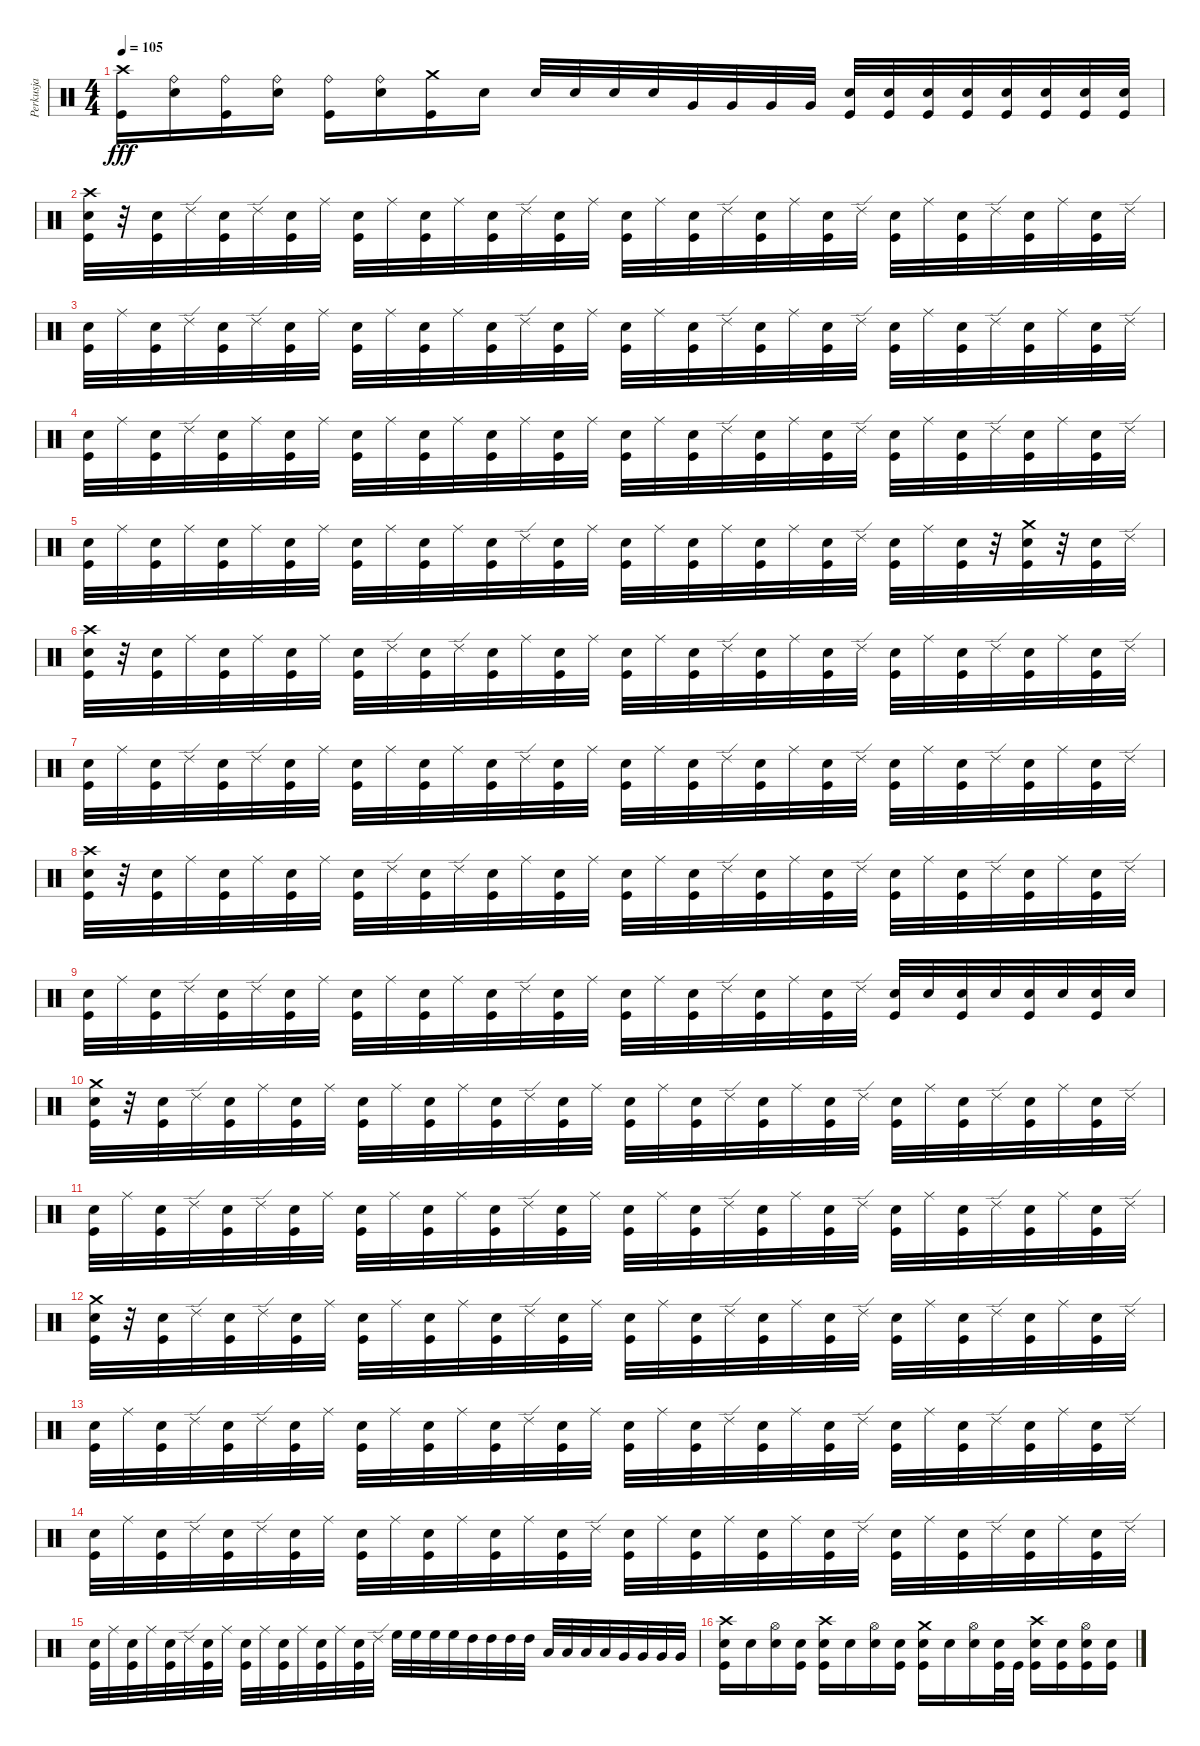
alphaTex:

\track ("Perkusja" "Perkusja") {instrument percussion}
\staff {score}
\articulation defaults
\ts (4 4)
\tempo 105
\clef neutral
\ks c
("Crash high (hit)" "Kick (hit)").16{dy fff} ("Ride (bell)" "Snare (hit) 2").16 ("Ride (bell)" "Kick (hit)").16 ("Ride (bell)" "Snare (hit) 2").16 ("Ride (bell)" "Kick (hit)").16 ("Ride (bell)" "Snare (hit) 2").16 ("Crash medium (hit)" "Kick (hit)").16 "Snare (hit) 2".16 "Snare (hit) 2".32 "Snare (hit) 2".32 "Snare (hit) 2".32 "Snare (hit) 2".32 "Very Low Tom (hit)".32{balance 16} "Very Low Tom (hit)".32 "Very Low Tom (hit)".32 "Very Low Tom (hit)".32 ("Snare (hit) 2" "Kick (hit)").32{balance 8} ("Snare (hit) 2" "Kick (hit)").32 ("Snare (hit) 2" "Kick (hit)").32 ("Snare (hit) 2" "Kick (hit)").32 ("Snare (hit) 2" "Kick (hit)").32 ("Snare (hit) 2" "Kick (hit)").32 ("Snare (hit) 2" "Kick (hit)").32 ("Snare (hit) 2" "Kick (hit)").32 |
("Crash high (hit)" "Snare (hit) 2" "Kick (hit)").32{balance 8} r.32 ("Snare (hit) 2" "Kick (hit)").32 "Ride (edge) 2".32 ("Snare (hit) 2" "Kick (hit)").32 "Ride (edge) 2".32 ("Snare (hit) 2" "Kick (hit)").32 "Ride (middle)".32 ("Snare (hit) 2" "Kick (hit)").32 "Ride (middle)".32 ("Snare (hit) 2" "Kick (hit)").32 "Ride (middle)".32 ("Snare (hit) 2" "Kick (hit)").32 "Ride (edge) 2".32 ("Snare (hit) 2" "Kick (hit)").32 "Ride (middle)".32 ("Snare (hit) 2" "Kick (hit)").32 "Ride (middle)".32 ("Snare (hit) 2" "Kick (hit)").32 "Ride (edge) 2".32 ("Snare (hit) 2" "Kick (hit)").32 "Ride (middle)".32 ("Snare (hit) 2" "Kick (hit)").32 "Ride (edge) 2".32 ("Snare (hit) 2" "Kick (hit)").32 "Ride (middle)".32 ("Snare (hit) 2" "Kick (hit)").32 "Ride (edge) 2".32 ("Snare (hit) 2" "Kick (hit)").32 "Ride (middle)".32 ("Snare (hit) 2" "Kick (hit)").32 "Ride (edge) 2".32 |
("Snare (hit) 2" "Kick (hit)").32 "Ride (middle)".32 ("Snare (hit) 2" "Kick (hit)").32 "Ride (edge) 2".32 ("Snare (hit) 2" "Kick (hit)").32 "Ride (edge) 2".32 ("Snare (hit) 2" "Kick (hit)").32 "Ride (middle)".32 ("Snare (hit) 2" "Kick (hit)").32 "Ride (middle)".32 ("Snare (hit) 2" "Kick (hit)").32 "Ride (middle)".32 ("Snare (hit) 2" "Kick (hit)").32 "Ride (edge) 2".32 ("Snare (hit) 2" "Kick (hit)").32 "Ride (middle)".32 ("Snare (hit) 2" "Kick (hit)").32 "Ride (middle)".32 ("Snare (hit) 2" "Kick (hit)").32 "Ride (edge) 2".32 ("Snare (hit) 2" "Kick (hit)").32 "Ride (middle)".32 ("Snare (hit) 2" "Kick (hit)").32 "Ride (edge) 2".32 ("Snare (hit) 2" "Kick (hit)").32 "Ride (middle)".32 ("Snare (hit) 2" "Kick (hit)").32 "Ride (edge) 2".32 ("Snare (hit) 2" "Kick (hit)").32 "Ride (middle)".32 ("Snare (hit) 2" "Kick (hit)").32 "Ride (edge) 2".32 |
("Snare (hit) 2" "Kick (hit)").32 "Ride (middle)".32 ("Snare (hit) 2" "Kick (hit)").32 "Ride (edge) 2".32 ("Snare (hit) 2" "Kick (hit)").32 "Ride (middle)".32 ("Snare (hit) 2" "Kick (hit)").32 "Ride (middle)".32 ("Snare (hit) 2" "Kick (hit)").32 "Ride (middle)".32 ("Snare (hit) 2" "Kick (hit)").32 "Ride (middle)".32 ("Snare (hit) 2" "Kick (hit)").32 "Ride (middle)".32 ("Snare (hit) 2" "Kick (hit)").32 "Ride (middle)".32 ("Snare (hit) 2" "Kick (hit)").32 "Ride (middle)".32 ("Snare (hit) 2" "Kick (hit)").32 "Ride (edge) 2".32 ("Snare (hit) 2" "Kick (hit)").32 "Ride (middle)".32 ("Snare (hit) 2" "Kick (hit)").32 "Ride (edge) 2".32 ("Snare (hit) 2" "Kick (hit)").32 "Ride (middle)".32 ("Snare (hit) 2" "Kick (hit)").32 "Ride (edge) 2".32 ("Snare (hit) 2" "Kick (hit)").32 "Ride (middle)".32 ("Snare (hit) 2" "Kick (hit)").32 "Ride (edge) 2".32 |
("Snare (hit) 2" "Kick (hit)").32 "Ride (middle)".32 ("Snare (hit) 2" "Kick (hit)").32 "Ride (middle)".32 ("Snare (hit) 2" "Kick (hit)").32 "Ride (middle)".32 ("Snare (hit) 2" "Kick (hit)").32 "Ride (middle)".32 ("Snare (hit) 2" "Kick (hit)").32 "Ride (middle)".32 ("Snare (hit) 2" "Kick (hit)").32 "Ride (middle)".32 ("Snare (hit) 2" "Kick (hit)").32 "Ride (edge) 2".32 ("Snare (hit) 2" "Kick (hit)").32 "Ride (middle)".32 ("Snare (hit) 2" "Kick (hit)").32 "Ride (middle)".32 ("Snare (hit) 2" "Kick (hit)").32 "Ride (middle)".32 ("Snare (hit) 2" "Kick (hit)").32 "Ride (middle)".32 ("Snare (hit) 2" "Kick (hit)").32 "Ride (edge) 2".32 ("Snare (hit) 2" "Kick (hit)").32 "Ride (middle)".32 ("Snare (hit) 2" "Kick (hit)").32 r.32 ("Crash medium (hit)" "Snare (hit) 2" "Kick (hit)").32 r.32 ("Snare (hit) 2" "Kick (hit)").32 "Ride (edge) 2".32 |
("Crash high (hit)" "Snare (hit) 2" "Kick (hit)").32 r.32 ("Snare (hit) 2" "Kick (hit)").32 "Ride (middle)".32 ("Snare (hit) 2" "Kick (hit)").32 "Ride (middle)".32 ("Snare (hit) 2" "Kick (hit)").32 "Ride (middle)".32 ("Snare (hit) 2" "Kick (hit)").32 "Ride (edge) 2".32 ("Snare (hit) 2" "Kick (hit)").32 "Ride (edge) 2".32 ("Snare (hit) 2" "Kick (hit)").32 "Ride (middle)".32 ("Snare (hit) 2" "Kick (hit)").32 "Ride (middle)".32 ("Snare (hit) 2" "Kick (hit)").32 "Ride (middle)".32 ("Snare (hit) 2" "Kick (hit)").32 "Ride (edge) 2".32 ("Snare (hit) 2" "Kick (hit)").32 "Ride (middle)".32 ("Snare (hit) 2" "Kick (hit)").32 "Ride (edge) 2".32 ("Snare (hit) 2" "Kick (hit)").32 "Ride (middle)".32 ("Snare (hit) 2" "Kick (hit)").32 "Ride (edge) 2".32 ("Snare (hit) 2" "Kick (hit)").32 "Ride (middle)".32 ("Snare (hit) 2" "Kick (hit)").32 "Ride (edge) 2".32 |
("Snare (hit) 2" "Kick (hit)").32 "Ride (middle)".32 ("Snare (hit) 2" "Kick (hit)").32 "Ride (edge) 2".32 ("Snare (hit) 2" "Kick (hit)").32 "Ride (edge) 2".32 ("Snare (hit) 2" "Kick (hit)").32 "Ride (middle)".32 ("Snare (hit) 2" "Kick (hit)").32 "Ride (middle)".32 ("Snare (hit) 2" "Kick (hit)").32 "Ride (middle)".32 ("Snare (hit) 2" "Kick (hit)").32 "Ride (edge) 2".32 ("Snare (hit) 2" "Kick (hit)").32 "Ride (middle)".32 ("Snare (hit) 2" "Kick (hit)").32 "Ride (middle)".32 ("Snare (hit) 2" "Kick (hit)").32 "Ride (edge) 2".32 ("Snare (hit) 2" "Kick (hit)").32 "Ride (middle)".32 ("Snare (hit) 2" "Kick (hit)").32 "Ride (edge) 2".32 ("Snare (hit) 2" "Kick (hit)").32 "Ride (middle)".32 ("Snare (hit) 2" "Kick (hit)").32 "Ride (edge) 2".32 ("Snare (hit) 2" "Kick (hit)").32 "Ride (middle)".32 ("Snare (hit) 2" "Kick (hit)").32 "Ride (edge) 2".32 |
("Crash high (hit)" "Snare (hit) 2" "Kick (hit)").32 r.32 ("Snare (hit) 2" "Kick (hit)").32 "Ride (middle)".32 ("Snare (hit) 2" "Kick (hit)").32 "Ride (middle)".32 ("Snare (hit) 2" "Kick (hit)").32 "Ride (middle)".32 ("Snare (hit) 2" "Kick (hit)").32 "Ride (edge) 2".32 ("Snare (hit) 2" "Kick (hit)").32 "Ride (edge) 2".32 ("Snare (hit) 2" "Kick (hit)").32 "Ride (middle)".32 ("Snare (hit) 2" "Kick (hit)").32 "Ride (middle)".32 ("Snare (hit) 2" "Kick (hit)").32 "Ride (middle)".32 ("Snare (hit) 2" "Kick (hit)").32 "Ride (edge) 2".32 ("Snare (hit) 2" "Kick (hit)").32 "Ride (middle)".32 ("Snare (hit) 2" "Kick (hit)").32 "Ride (edge) 2".32 ("Snare (hit) 2" "Kick (hit)").32 "Ride (middle)".32 ("Snare (hit) 2" "Kick (hit)").32 "Ride (edge) 2".32 ("Snare (hit) 2" "Kick (hit)").32 "Ride (middle)".32 ("Snare (hit) 2" "Kick (hit)").32 "Ride (edge) 2".32 |
("Snare (hit) 2" "Kick (hit)").32 "Ride (middle)".32 ("Snare (hit) 2" "Kick (hit)").32 "Ride (edge) 2".32 ("Snare (hit) 2" "Kick (hit)").32 "Ride (edge) 2".32 ("Snare (hit) 2" "Kick (hit)").32 "Ride (middle)".32 ("Snare (hit) 2" "Kick (hit)").32 "Ride (middle)".32 ("Snare (hit) 2" "Kick (hit)").32 "Ride (middle)".32 ("Snare (hit) 2" "Kick (hit)").32 "Ride (edge) 2".32 ("Snare (hit) 2" "Kick (hit)").32 "Ride (middle)".32 ("Snare (hit) 2" "Kick (hit)").32 "Ride (middle)".32 ("Snare (hit) 2" "Kick (hit)").32 "Ride (edge) 2".32 ("Snare (hit) 2" "Kick (hit)").32 "Ride (middle)".32 ("Snare (hit) 2" "Kick (hit)").32 "Ride (edge) 2".32 ("Snare (hit) 2" "Kick (hit)").32 "Snare (hit) 2".32 ("Snare (hit) 2" "Kick (hit)").32 "Snare (hit) 2".32 ("Snare (hit) 2" "Kick (hit)").32 "Snare (hit) 2".32 ("Snare (hit) 2" "Kick (hit)").32 "Snare (hit) 2".32 |
("Crash medium (hit)" "Snare (hit) 2" "Kick (hit)").32 r.32 ("Snare (hit) 2" "Kick (hit)").32 "Ride (edge) 2".32 ("Snare (hit) 2" "Kick (hit)").32 "Ride (middle)".32 ("Snare (hit) 2" "Kick (hit)").32 "Ride (middle)".32 ("Snare (hit) 2" "Kick (hit)").32 "Ride (middle)".32 ("Snare (hit) 2" "Kick (hit)").32 "Ride (middle)".32 ("Snare (hit) 2" "Kick (hit)").32 "Ride (edge) 2".32 ("Snare (hit) 2" "Kick (hit)").32 "Ride (middle)".32 ("Snare (hit) 2" "Kick (hit)").32 "Ride (middle)".32 ("Snare (hit) 2" "Kick (hit)").32 "Ride (edge) 2".32 ("Snare (hit) 2" "Kick (hit)").32 "Ride (middle)".32 ("Snare (hit) 2" "Kick (hit)").32 "Ride (edge) 2".32 ("Snare (hit) 2" "Kick (hit)").32 "Ride (middle)".32 ("Snare (hit) 2" "Kick (hit)").32 "Ride (edge) 2".32 ("Snare (hit) 2" "Kick (hit)").32 "Ride (middle)".32 ("Snare (hit) 2" "Kick (hit)").32 "Ride (edge) 2".32 |
("Snare (hit) 2" "Kick (hit)").32 "Ride (middle)".32 ("Snare (hit) 2" "Kick (hit)").32 "Ride (edge) 2".32 ("Snare (hit) 2" "Kick (hit)").32 "Ride (edge) 2".32 ("Snare (hit) 2" "Kick (hit)").32 "Ride (middle)".32 ("Snare (hit) 2" "Kick (hit)").32 "Ride (middle)".32 ("Snare (hit) 2" "Kick (hit)").32 "Ride (middle)".32 ("Snare (hit) 2" "Kick (hit)").32 "Ride (edge) 2".32 ("Snare (hit) 2" "Kick (hit)").32 "Ride (middle)".32 ("Snare (hit) 2" "Kick (hit)").32 "Ride (middle)".32 ("Snare (hit) 2" "Kick (hit)").32 "Ride (edge) 2".32 ("Snare (hit) 2" "Kick (hit)").32 "Ride (middle)".32 ("Snare (hit) 2" "Kick (hit)").32 "Ride (edge) 2".32 ("Snare (hit) 2" "Kick (hit)").32 "Ride (middle)".32 ("Snare (hit) 2" "Kick (hit)").32 "Ride (edge) 2".32 ("Snare (hit) 2" "Kick (hit)").32 "Ride (middle)".32 ("Snare (hit) 2" "Kick (hit)").32 "Ride (edge) 2".32 |
("Crash medium (hit)" "Snare (hit) 2" "Kick (hit)").32 r.32 ("Snare (hit) 2" "Kick (hit)").32 "Ride (edge) 2".32 ("Snare (hit) 2" "Kick (hit)").32 "Ride (edge) 2".32 ("Snare (hit) 2" "Kick (hit)").32 "Ride (middle)".32 ("Snare (hit) 2" "Kick (hit)").32 "Ride (middle)".32 ("Snare (hit) 2" "Kick (hit)").32 "Ride (middle)".32 ("Snare (hit) 2" "Kick (hit)").32 "Ride (edge) 2".32 ("Snare (hit) 2" "Kick (hit)").32 "Ride (middle)".32 ("Snare (hit) 2" "Kick (hit)").32 "Ride (middle)".32 ("Snare (hit) 2" "Kick (hit)").32 "Ride (edge) 2".32 ("Snare (hit) 2" "Kick (hit)").32 "Ride (middle)".32 ("Snare (hit) 2" "Kick (hit)").32 "Ride (edge) 2".32 ("Snare (hit) 2" "Kick (hit)").32 "Ride (middle)".32 ("Snare (hit) 2" "Kick (hit)").32 "Ride (edge) 2".32 ("Snare (hit) 2" "Kick (hit)").32 "Ride (middle)".32 ("Snare (hit) 2" "Kick (hit)").32 "Ride (edge) 2".32 |
("Snare (hit) 2" "Kick (hit)").32 "Ride (middle)".32 ("Snare (hit) 2" "Kick (hit)").32 "Ride (edge) 2".32 ("Snare (hit) 2" "Kick (hit)").32 "Ride (edge) 2".32 ("Snare (hit) 2" "Kick (hit)").32 "Ride (middle)".32 ("Snare (hit) 2" "Kick (hit)").32 "Ride (middle)".32 ("Snare (hit) 2" "Kick (hit)").32 "Ride (middle)".32 ("Snare (hit) 2" "Kick (hit)").32 "Ride (edge) 2".32 ("Snare (hit) 2" "Kick (hit)").32 "Ride (middle)".32 ("Snare (hit) 2" "Kick (hit)").32 "Ride (middle)".32 ("Snare (hit) 2" "Kick (hit)").32 "Ride (edge) 2".32 ("Snare (hit) 2" "Kick (hit)").32 "Ride (middle)".32 ("Snare (hit) 2" "Kick (hit)").32 "Ride (edge) 2".32 ("Snare (hit) 2" "Kick (hit)").32 "Ride (middle)".32 ("Snare (hit) 2" "Kick (hit)").32 "Ride (edge) 2".32 ("Snare (hit) 2" "Kick (hit)").32 "Ride (middle)".32 ("Snare (hit) 2" "Kick (hit)").32 "Ride (edge) 2".32 |
("Snare (hit) 2" "Kick (hit)").32 "Ride (middle)".32 ("Snare (hit) 2" "Kick (hit)").32 "Ride (edge) 2".32 ("Snare (hit) 2" "Kick (hit)").32 "Ride (edge) 2".32 ("Snare (hit) 2" "Kick (hit)").32 "Ride (middle)".32 ("Snare (hit) 2" "Kick (hit)").32 "Ride (middle)".32 ("Snare (hit) 2" "Kick (hit)").32 "Ride (middle)".32 ("Snare (hit) 2" "Kick (hit)").32 "Ride (middle)".32 ("Snare (hit) 2" "Kick (hit)").32 "Ride (edge) 2".32 ("Snare (hit) 2" "Kick (hit)").32 "Ride (middle)".32 ("Snare (hit) 2" "Kick (hit)").32 "Ride (middle)".32 ("Snare (hit) 2" "Kick (hit)").32 "Ride (middle)".32 ("Snare (hit) 2" "Kick (hit)").32 "Ride (edge) 2".32 ("Snare (hit) 2" "Kick (hit)").32 "Ride (middle)".32 ("Snare (hit) 2" "Kick (hit)").32 "Ride (edge) 2".32 ("Snare (hit) 2" "Kick (hit)").32 "Ride (middle)".32 ("Snare (hit) 2" "Kick (hit)").32 "Ride (edge) 2".32 |
("Snare (hit) 2" "Kick (hit)").32 "Ride (middle)".32 ("Snare (hit) 2" "Kick (hit)").32 "Ride (middle)".32 ("Snare (hit) 2" "Kick (hit)").32 "Ride (edge) 2".32 ("Snare (hit) 2" "Kick (hit)").32 "Ride (middle)".32 ("Snare (hit) 2" "Kick (hit)").32 "Ride (middle)".32 ("Snare (hit) 2" "Kick (hit)").32 "Ride (middle)".32 ("Snare (hit) 2" "Kick (hit)").32 "Ride (middle)".32 ("Snare (hit) 2" "Kick (hit)").32 "Ride (edge) 2".32 "High Floor Tom (hit)".32{balance 0} "High Floor Tom (hit)".32{balance 16} "High Floor Tom (hit)".32 "High Floor Tom (hit)".32 "High Tom (hit)".32 "High Tom (hit)".32 "High Tom (hit)".32 "High Tom (hit)".32 "Low Tom (hit)".32 "Low Tom (hit)".32 "Low Tom (hit)".32 "Low Tom (hit)".32 "Very Low Tom (hit)".32 "Very Low Tom (hit)".32 "Very Low Tom (hit)".32 "Very Low Tom (hit)".32 |
("Crash high (hit)" "Snare (hit) 2" "Kick (hit)").16 "Snare (hit) 2".16{balance 8} ("Hi-Hat (open)" "Snare (hit) 2").16{balance 8} ("Snare (hit) 2" "Kick (hit)").16 ("Crash high (hit)" "Snare (hit) 2" "Kick (hit)").16 "Snare (hit) 2".16 ("Hi-Hat (open)" "Snare (hit) 2").16 ("Snare (hit) 2" "Kick (hit)").16 ("Crash medium (hit)" "Snare (hit) 2" "Kick (hit)").16 "Snare (hit) 2".16 ("Hi-Hat (open)" "Snare (hit) 2").16 ("Snare (hit) 2" "Kick (hit)").32 "Kick (hit)".32 ("Crash high (hit)" "Snare (hit) 2" "Kick (hit)").16 ("Snare (hit) 2" "Kick (hit)").16 ("Hi-Hat (open)" "Snare (hit) 2" "Kick (hit)").16 ("Snare (hit) 2" "Kick (hit)").16
